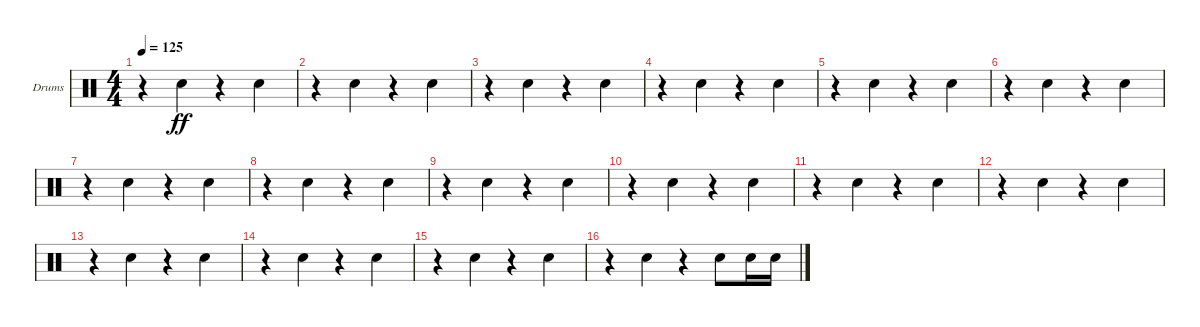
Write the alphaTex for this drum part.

\defaultSystemsLayout 4
\bracketExtendMode groupsimilarinstruments
\firstSystemTrackNameOrientation horizontal
\otherSystemsTrackNameOrientation horizontal
\track ("Drumkit" "Drums") {instrument percussion}
\staff {score}
\articulation defaults
\ts (4 4)
\tempo 125
\clef neutral
\scale
0.333333
\ks c
r.4{dy ff} "Snare (hit) 2".4 r.4 "Snare (hit) 2".4 |
\scale
0.333333 r.4 "Snare (hit) 2".4 r.4 "Snare (hit) 2".4 |
\scale
0.333333 r.4 "Snare (hit) 2".4 r.4 "Snare (hit) 2".4 |
\scale
0.333333 r.4 "Snare (hit) 2".4 r.4 "Snare (hit) 2".4 |
\scale
0.333333 r.4 "Snare (hit) 2".4 r.4 "Snare (hit) 2".4 |
\scale
0.333333 r.4 "Snare (hit) 2".4 r.4 "Snare (hit) 2".4 |
\scale
0.333333 r.4 "Snare (hit) 2".4 r.4 "Snare (hit) 2".4 |
\scale
0.333333 r.4 "Snare (hit) 2".4 r.4 "Snare (hit) 2".4 |
\scale
0.333333 r.4 "Snare (hit) 2".4 r.4 "Snare (hit) 2".4 |
\scale
0.333333 r.4 "Snare (hit) 2".4 r.4 "Snare (hit) 2".4 |
\scale
0.333333 r.4 "Snare (hit) 2".4 r.4 "Snare (hit) 2".4 |
\scale
0.333333 r.4 "Snare (hit) 2".4 r.4 "Snare (hit) 2".4 |
\scale
0.333333 r.4 "Snare (hit) 2".4 r.4 "Snare (hit) 2".4 |
\scale
0.333333 r.4 "Snare (hit) 2".4 r.4 "Snare (hit) 2".4 |
\scale
0.333333 r.4 "Snare (hit) 2".4 r.4 "Snare (hit) 2".4 |
\scale
0.333333 r.4 "Snare (hit) 2".4 r.4 "Snare (hit) 2".8 "Snare (hit) 2".16 "Snare (hit) 2".16
